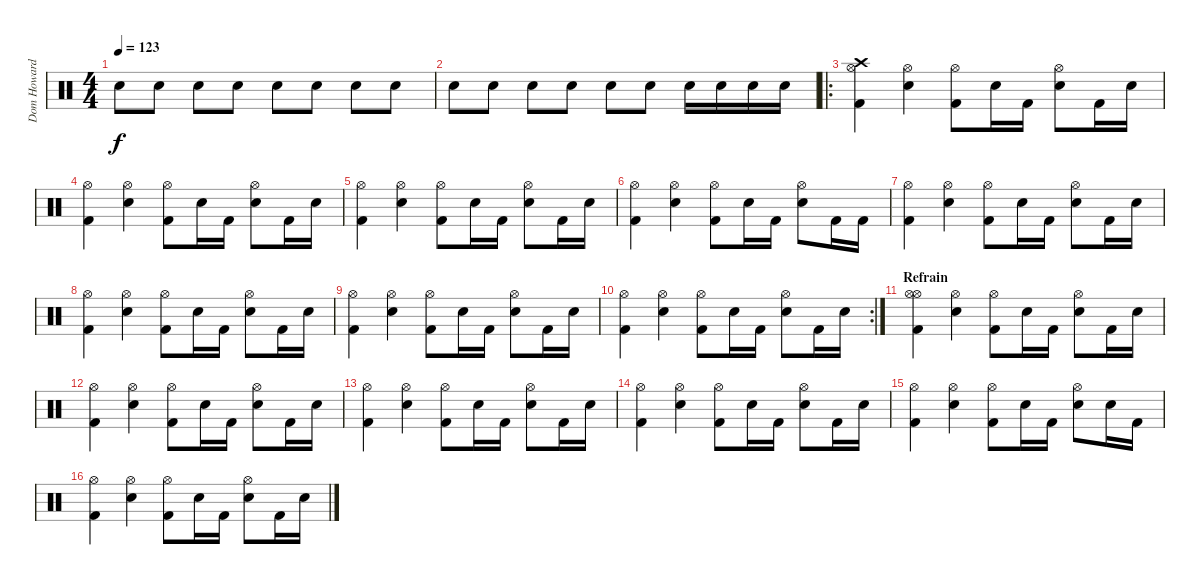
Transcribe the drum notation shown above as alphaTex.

\track ("Dom Howard" "Dom Howard") {instrument percussion}
\staff {score}
\articulation defaults
\ts (4 4)
\tempo 123
\clef neutral
\ks c "Snare (hit) 2".8{dy f} "Snare (hit) 2".8 "Snare (hit) 2".8 "Snare (hit) 2".8 "Snare (hit) 2".8 "Snare (hit) 2".8 "Snare (hit) 2".8 "Snare (hit) 2".8
|
"Snare (hit) 2".8 "Snare (hit) 2".8 "Snare (hit) 2".8 "Snare (hit) 2".8 "Snare (hit) 2".8 "Snare (hit) 2".8 "Snare (hit) 2".16 "Snare (hit) 2".16 "Snare (hit) 2".16 "Snare (hit) 2".16 |
\ro
("Crash high (hit)" "Hi-Hat (open)" "Kick (hit) 2").4 ("Hi-Hat (open)" "Snare (hit) 2").4 ("Hi-Hat (open)" "Kick (hit) 2").8 "Snare (hit) 2".16 "Kick (hit) 2".16 ("Hi-Hat (open)" "Snare (hit) 2").8 "Kick (hit) 2".16 "Snare (hit) 2".16 |
("Hi-Hat (open)" "Kick (hit) 2").4 ("Hi-Hat (open)" "Snare (hit) 2").4 ("Hi-Hat (open)" "Kick (hit) 2").8 "Snare (hit) 2".16 "Kick (hit) 2".16 ("Hi-Hat (open)" "Snare (hit) 2").8 "Kick (hit) 2".16 "Snare (hit) 2".16 |
("Hi-Hat (open)" "Kick (hit) 2").4 ("Hi-Hat (open)" "Snare (hit) 2").4 ("Hi-Hat (open)" "Kick (hit) 2").8 "Snare (hit) 2".16 "Kick (hit) 2".16 ("Hi-Hat (open)" "Snare (hit) 2").8 "Kick (hit) 2".16 "Snare (hit) 2".16 |
("Hi-Hat (open)" "Kick (hit) 2").4 ("Hi-Hat (open)" "Snare (hit) 2").4 ("Hi-Hat (open)" "Kick (hit) 2").8 "Snare (hit) 2".16 "Kick (hit) 2".16 ("Hi-Hat (open)" "Snare (hit) 2").8 "Kick (hit) 2".16 "Kick (hit) 2".16 |
("Hi-Hat (open)" "Kick (hit) 2").4 ("Hi-Hat (open)" "Snare (hit) 2").4 ("Hi-Hat (open)" "Kick (hit) 2").8 "Snare (hit) 2".16 "Kick (hit) 2".16 ("Hi-Hat (open)" "Snare (hit) 2").8 "Kick (hit) 2".16 "Snare (hit) 2".16 |
("Hi-Hat (open)" "Kick (hit) 2").4 ("Hi-Hat (open)" "Snare (hit) 2").4 ("Hi-Hat (open)" "Kick (hit) 2").8 "Snare (hit) 2".16 "Kick (hit) 2".16 ("Hi-Hat (open)" "Snare (hit) 2").8 "Kick (hit) 2".16 "Snare (hit) 2".16 |
("Hi-Hat (open)" "Kick (hit) 2").4 ("Hi-Hat (open)" "Snare (hit) 2").4 ("Hi-Hat (open)" "Kick (hit) 2").8 "Snare (hit) 2".16 "Kick (hit) 2".16 ("Hi-Hat (open)" "Snare (hit) 2").8 "Kick (hit) 2".16 "Snare (hit) 2".16 |
\rc 2
("Hi-Hat (open)" "Kick (hit) 2").4 ("Hi-Hat (open)" "Snare (hit) 2").4 ("Hi-Hat (open)" "Kick (hit) 2").8 "Snare (hit) 2".16 "Kick (hit) 2".16 ("Hi-Hat (open)" "Snare (hit) 2").8 "Kick (hit) 2".16 "Snare (hit) 2".16 |
\section ("" "Refrain")
("Hi-Hat (open)" "Hi-Hat (open)" "Kick (hit) 2").4 ("Hi-Hat (open)" "Snare (hit) 2").4 ("Hi-Hat (open)" "Kick (hit) 2").8 "Snare (hit) 2".16 "Kick (hit) 2".16 ("Hi-Hat (open)" "Snare (hit) 2").8 "Kick (hit) 2".16 "Snare (hit) 2".16 |
("Hi-Hat (open)" "Kick (hit) 2").4 ("Hi-Hat (open)" "Snare (hit) 2").4 ("Hi-Hat (open)" "Kick (hit) 2").8 "Snare (hit) 2".16 "Kick (hit) 2".16 ("Hi-Hat (open)" "Snare (hit) 2").8 "Kick (hit) 2".16 "Snare (hit) 2".16 |
("Hi-Hat (open)" "Kick (hit) 2").4 ("Hi-Hat (open)" "Snare (hit) 2").4 ("Hi-Hat (open)" "Kick (hit) 2").8 "Snare (hit) 2".16 "Kick (hit) 2".16 ("Hi-Hat (open)" "Snare (hit) 2").8 "Kick (hit) 2".16 "Snare (hit) 2".16 |
("Hi-Hat (open)" "Kick (hit) 2").4 ("Hi-Hat (open)" "Snare (hit) 2").4 ("Hi-Hat (open)" "Kick (hit) 2").8 "Snare (hit) 2".16 "Kick (hit) 2".16 ("Hi-Hat (open)" "Snare (hit) 2").8 "Kick (hit) 2".16 "Snare (hit) 2".16 |
("Hi-Hat (open)" "Kick (hit) 2").4 ("Hi-Hat (open)" "Snare (hit) 2").4 ("Hi-Hat (open)" "Kick (hit) 2").8 "Snare (hit) 2".16 "Kick (hit) 2".16 ("Hi-Hat (open)" "Snare (hit) 2").8 "Snare (hit) 2".16 "Kick (hit) 2".16 |
("Hi-Hat (open)" "Kick (hit) 2").4 ("Hi-Hat (open)" "Snare (hit) 2").4 ("Hi-Hat (open)" "Kick (hit) 2").8 "Snare (hit) 2".16 "Kick (hit) 2".16 ("Hi-Hat (open)" "Snare (hit) 2").8 "Kick (hit) 2".16 "Snare (hit) 2".16
